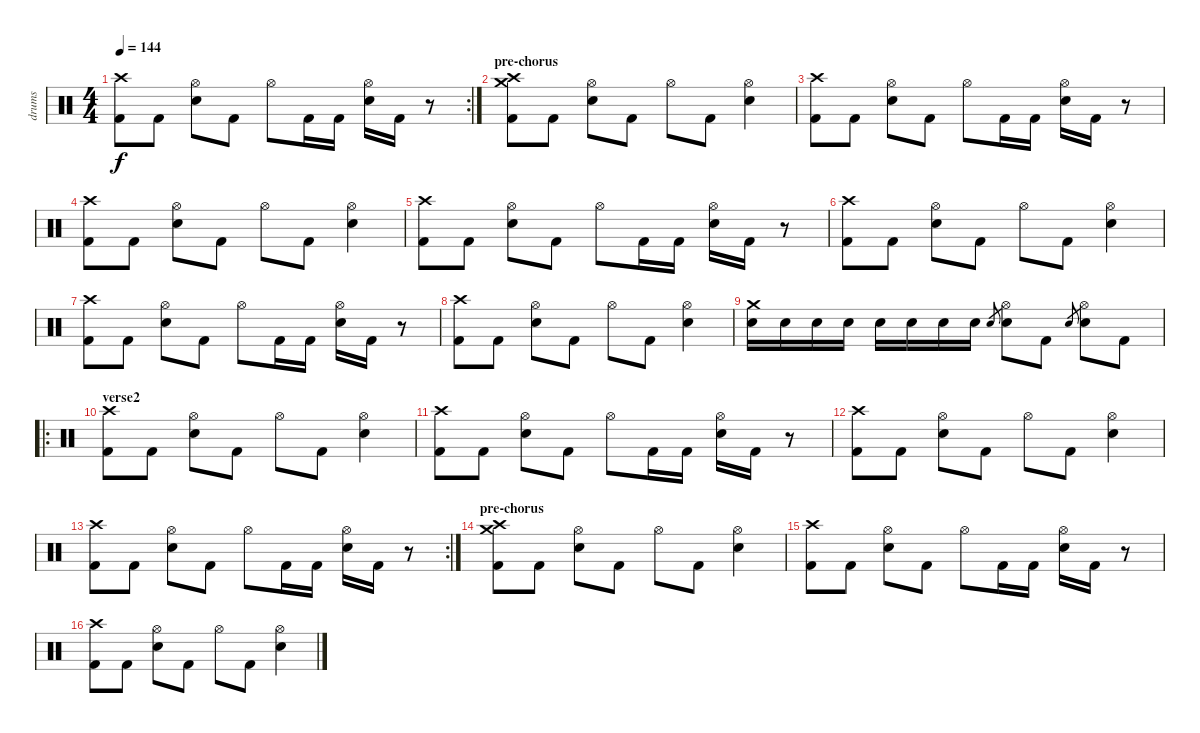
\track ("drums" "drums") {instrument percussion}
\staff {score}
\articulation defaults
\rc 2
\ts (4 4)
\tempo 144
\clef neutral
\ks c
("Crash high (hit)" "Kick (hit) 2").8{dy f} "Kick (hit) 2".8 ("Hi-Hat (open)" "Electric Snare (hit)").8 "Kick (hit) 2".8 "Hi-Hat (open)".8 "Kick (hit) 2".16 "Kick (hit) 2".16 ("Hi-Hat (open)" "Electric Snare (hit)").16 "Kick (hit) 2".16 r.8 |
\section ("" "pre-chorus")
("Crash high (hit)" "Crash medium (hit)" "Kick (hit) 2").8 "Kick (hit) 2".8 ("Hi-Hat (open)" "Electric Snare (hit)").8 "Kick (hit) 2".8 "Hi-Hat (open)".8 "Kick (hit) 2".8 ("Hi-Hat (open)" "Electric Snare (hit)").4 |
("Crash high (hit)" "Kick (hit) 2").8 "Kick (hit) 2".8 ("Hi-Hat (open)" "Electric Snare (hit)").8 "Kick (hit) 2".8 "Hi-Hat (open)".8 "Kick (hit) 2".16 "Kick (hit) 2".16 ("Hi-Hat (open)" "Electric Snare (hit)").16 "Kick (hit) 2".16 r.8 |
("Crash high (hit)" "Kick (hit) 2").8 "Kick (hit) 2".8 ("Hi-Hat (open)" "Electric Snare (hit)").8 "Kick (hit) 2".8 "Hi-Hat (open)".8 "Kick (hit) 2".8 ("Hi-Hat (open)" "Electric Snare (hit)").4 |
("Crash high (hit)" "Kick (hit) 2").8 "Kick (hit) 2".8 ("Hi-Hat (open)" "Electric Snare (hit)").8 "Kick (hit) 2".8 "Hi-Hat (open)".8 "Kick (hit) 2".16 "Kick (hit) 2".16 ("Hi-Hat (open)" "Electric Snare (hit)").16 "Kick (hit) 2".16 r.8 |
("Crash high (hit)" "Kick (hit) 2").8 "Kick (hit) 2".8 ("Hi-Hat (open)" "Electric Snare (hit)").8 "Kick (hit) 2".8 "Hi-Hat (open)".8 "Kick (hit) 2".8 ("Hi-Hat (open)" "Electric Snare (hit)").4 |
("Crash high (hit)" "Kick (hit) 2").8 "Kick (hit) 2".8 ("Hi-Hat (open)" "Electric Snare (hit)").8 "Kick (hit) 2".8 "Hi-Hat (open)".8 "Kick (hit) 2".16 "Kick (hit) 2".16 ("Hi-Hat (open)" "Electric Snare (hit)").16 "Kick (hit) 2".16 r.8 |
("Crash high (hit)" "Kick (hit) 2").8 "Kick (hit) 2".8 ("Hi-Hat (open)" "Electric Snare (hit)").8 "Kick (hit) 2".8 "Hi-Hat (open)".8 "Kick (hit) 2".8 ("Hi-Hat (open)" "Electric Snare (hit)").4 |
("Crash medium (hit)" "Electric Snare (hit)").16 "Electric Snare (hit)".16 "Electric Snare (hit)".16 "Electric Snare (hit)".16 "Electric Snare (hit)".16 "Electric Snare (hit)".16 "Electric Snare (hit)".16 "Electric Snare (hit)".16 "Electric Snare (hit)".8{gr} ("Hi-Hat (open)" "Electric Snare (hit)").8 "Kick (hit) 2".8 "Electric Snare (hit)".8{gr} ("Hi-Hat (open)" "Electric Snare (hit)").8 "Kick (hit) 2".8 |
\ro
\section ("" "verse2")
("Crash high (hit)" "Kick (hit) 2").8 "Kick (hit) 2".8 ("Hi-Hat (open)" "Electric Snare (hit)").8 "Kick (hit) 2".8 "Hi-Hat (open)".8 "Kick (hit) 2".8 ("Hi-Hat (open)" "Electric Snare (hit)").4 |
("Crash high (hit)" "Kick (hit) 2").8 "Kick (hit) 2".8 ("Hi-Hat (open)" "Electric Snare (hit)").8 "Kick (hit) 2".8 "Hi-Hat (open)".8 "Kick (hit) 2".16 "Kick (hit) 2".16 ("Hi-Hat (open)" "Electric Snare (hit)").16 "Kick (hit) 2".16 r.8 |
("Crash high (hit)" "Kick (hit) 2").8 "Kick (hit) 2".8 ("Hi-Hat (open)" "Electric Snare (hit)").8 "Kick (hit) 2".8 "Hi-Hat (open)".8 "Kick (hit) 2".8 ("Hi-Hat (open)" "Electric Snare (hit)").4 |
\rc 2
("Crash high (hit)" "Kick (hit) 2").8 "Kick (hit) 2".8 ("Hi-Hat (open)" "Electric Snare (hit)").8 "Kick (hit) 2".8 "Hi-Hat (open)".8 "Kick (hit) 2".16 "Kick (hit) 2".16 ("Hi-Hat (open)" "Electric Snare (hit)").16 "Kick (hit) 2".16 r.8 |
\section ("" "pre-chorus")
("Crash high (hit)" "Crash medium (hit)" "Kick (hit) 2").8 "Kick (hit) 2".8 ("Hi-Hat (open)" "Electric Snare (hit)").8 "Kick (hit) 2".8 "Hi-Hat (open)".8 "Kick (hit) 2".8 ("Hi-Hat (open)" "Electric Snare (hit)").4 |
("Crash high (hit)" "Kick (hit) 2").8 "Kick (hit) 2".8 ("Hi-Hat (open)" "Electric Snare (hit)").8 "Kick (hit) 2".8 "Hi-Hat (open)".8 "Kick (hit) 2".16 "Kick (hit) 2".16 ("Hi-Hat (open)" "Electric Snare (hit)").16 "Kick (hit) 2".16 r.8 |
("Crash high (hit)" "Kick (hit) 2").8 "Kick (hit) 2".8 ("Hi-Hat (open)" "Electric Snare (hit)").8 "Kick (hit) 2".8 "Hi-Hat (open)".8 "Kick (hit) 2".8 ("Hi-Hat (open)" "Electric Snare (hit)").4
